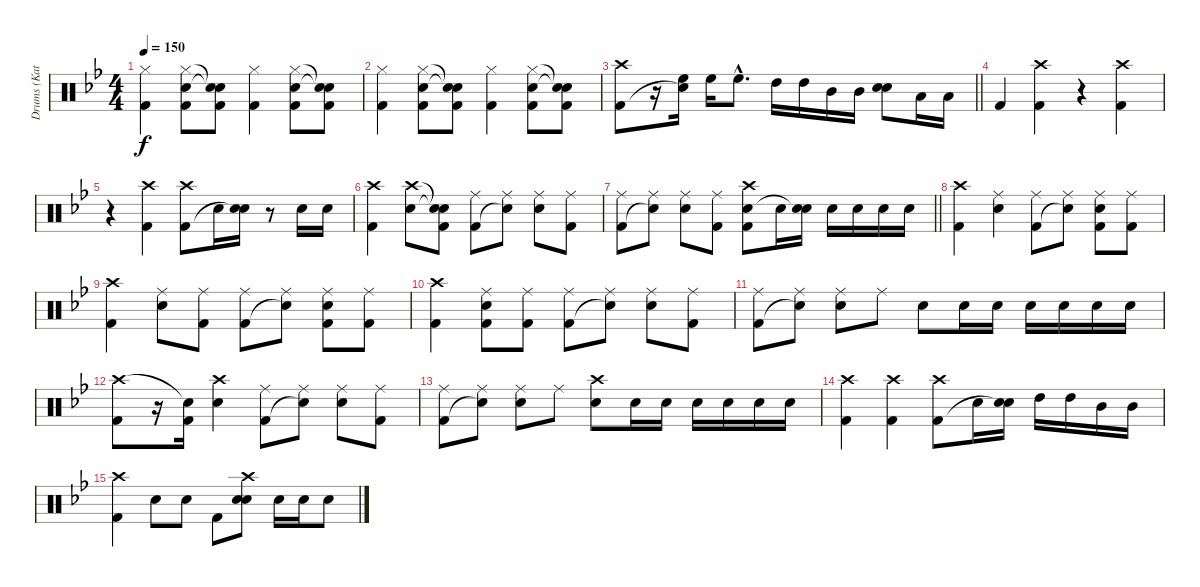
\track ("Drums (Katsuji)" "Drums (Kat") {instrument percussion}
\staff {score}
\articulation defaults
\ts (4 4)
\tempo 150
\clef neutral
\ks bb
("Hi-Hat (closed)" "Kick (hit) 2").4{dy f} ("Hi-Hat (closed)" "Snare (hit) 2" "Kick (hit) 2").8 ("Snare (hit)"{t} "Snare (hit)"{t} "Kick (hit) 2").8 ("Hi-Hat (closed)" "Kick (hit) 2").4 ("Hi-Hat (closed)" "Snare (hit) 2" "Kick (hit) 2").8 ("Snare (hit)"{t} "Snare (hit)"{t} "Kick (hit) 2").8 |
("Hi-Hat (closed)" "Kick (hit) 2").4 ("Hi-Hat (closed)" "Snare (hit) 2" "Kick (hit) 2").8 ("Snare (hit)"{t} "Snare (hit)"{t} "Kick (hit) 2").8 ("Hi-Hat (closed)" "Kick (hit) 2").4 ("Hi-Hat (closed)" "Snare (hit) 2" "Kick (hit) 2").8 ("Snare (hit)"{t} "Snare (hit)"{t} "Kick (hit) 2").8 |
\barLineRight lightlight
("Crash high (hit)" "Kick (hit) 2").8 r.16 ("High Floor Tom (hit)" "Snare (hit)"{t}).16 "High Floor Tom (hit)".16 "High Floor Tom (hit)"{hac}.8{d} "High Tom (hit)".16 "High Tom (hit)".16 "Mid Tom (hit)".16 "Mid Tom (hit)".16 ("Snare (hit) 2" "Snare (hit) 2").8 "Low Tom (hit)".16 "Low Tom (hit)".16 |
"Kick (hit) 2".4 ("Crash high (hit)" "Kick (hit) 2").4 r.4 ("Crash high (hit)" "Kick (hit) 2").4 |
r.4 ("Crash high (hit)" "Kick (hit) 2").4 ("Crash high (hit)" "Kick (hit) 2").8 "Snare (hit) 2".16 ("Snare (hit) 2" "Snare (hit)"{t}).16 r.8 "Snare (hit) 2".16 "Snare (hit) 2".16 |
("Crash high (hit)" "Kick (hit) 2").4 ("Crash high (hit)" "Snare (hit) 2").8 ("Snare (hit)"{t} "Snare (hit)"{t} "Kick (hit) 2").8 ("Ride (middle)" "Kick (hit) 2").8 ("Ride (middle)" "Snare (hit)"{t}).8 ("Ride (middle)" "Snare (hit) 2").8 ("Ride (middle)" "Kick (hit) 2").8 |
\barLineRight lightlight
("Ride (middle)" "Kick (hit) 2").8 ("Ride (middle)" "Snare (hit)"{t}).8 ("Ride (middle)" "Snare (hit) 2").8 ("Ride (middle)" "Kick (hit) 2").8 ("Crash high (hit)" "Snare (hit) 2" "Kick (hit) 2").8 "Snare (hit) 2".16 ("Snare (hit) 2" "Snare (hit)"{t}).16 "Snare (hit) 2".16 "Snare (hit) 2".16 "Snare (hit) 2".16 "Snare (hit) 2".16 |
("Crash high (hit)" "Kick (hit) 2").4 ("Ride (middle)" "Snare (hit) 2").4 ("Ride (middle)" "Kick (hit) 2").8 ("Ride (middle)" "Snare (hit)"{t}).8 ("Ride (middle)" "Snare (hit) 2" "Kick (hit) 2").8 ("Ride (middle)" "Kick (hit) 2").8 |
("Crash high (hit)" "Kick (hit) 2").4 ("Ride (middle)" "Snare (hit) 2").8 ("Ride (middle)" "Kick (hit) 2").8 ("Ride (middle)" "Kick (hit) 2").8 ("Ride (middle)" "Snare (hit)"{t}).8 ("Ride (middle)" "Snare (hit) 2" "Kick (hit) 2").8 ("Ride (middle)" "Kick (hit) 2").8 |
("Crash high (hit)" "Kick (hit) 2").4 ("Ride (middle)" "Snare (hit) 2" "Kick (hit) 2").8 ("Ride (middle)" "Kick (hit) 2").8 ("Ride (middle)" "Kick (hit) 2").8 ("Ride (middle)" "Snare (hit)"{t}).8 ("Ride (middle)" "Snare (hit) 2").8 ("Ride (middle)" "Kick (hit) 2").8 |
("Ride (middle)" "Kick (hit) 2").8 ("Ride (middle)" "Snare (hit)"{t}).8 ("Ride (middle)" "Snare (hit) 2").8 "Ride (middle)".8 "Snare (hit) 2".8 "Snare (hit) 2".16 "Snare (hit) 2".16 "Snare (hit) 2".16 "Snare (hit) 2".16 "Snare (hit) 2".16 "Snare (hit) 2".16 |
("Crash high (hit)" "Kick (hit) 2").8 r.16 ("Snare (hit)"{t} "Kick (hit) 2").16 ("Crash high (hit)" "Snare (hit) 2").4 ("Ride (middle)" "Kick (hit) 2").8 ("Ride (middle)" "Snare (hit)"{t}).8 ("Ride (middle)" "Snare (hit) 2").8 ("Ride (middle)" "Kick (hit) 2").8 |
("Ride (middle)" "Kick (hit) 2").8 ("Ride (middle)" "Snare (hit)"{t}).8 ("Ride (middle)" "Snare (hit) 2").8 "Ride (middle)".8 ("Crash high (hit)" "Snare (hit) 2").8 "Snare (hit) 2".16 "Snare (hit) 2".16 "Snare (hit) 2".16 "Snare (hit) 2".16 "Snare (hit) 2".16 "Snare (hit) 2".16 |
("Crash high (hit)" "Kick (hit) 2").4 ("Crash high (hit)" "Kick (hit) 2").4 ("Crash high (hit)" "Kick (hit) 2").8 "Snare (hit) 2".16 ("Snare (hit) 2" "Snare (hit)"{t}).16 "High Tom (hit)".16 "High Tom (hit)".16 "Mid Tom (hit)".16 "Mid Tom (hit)".16 |
("Crash high (hit)" "Kick (hit) 2").4 "Snare (hit) 2".8 "Snare (hit) 2".8 "Kick (hit) 2".8 ("Crash high (hit)" "Snare (hit) 2" "Snare (hit)").8 "Snare (hit) 2".16 "Snare (hit) 2".16 "Snare (hit) 2".8
